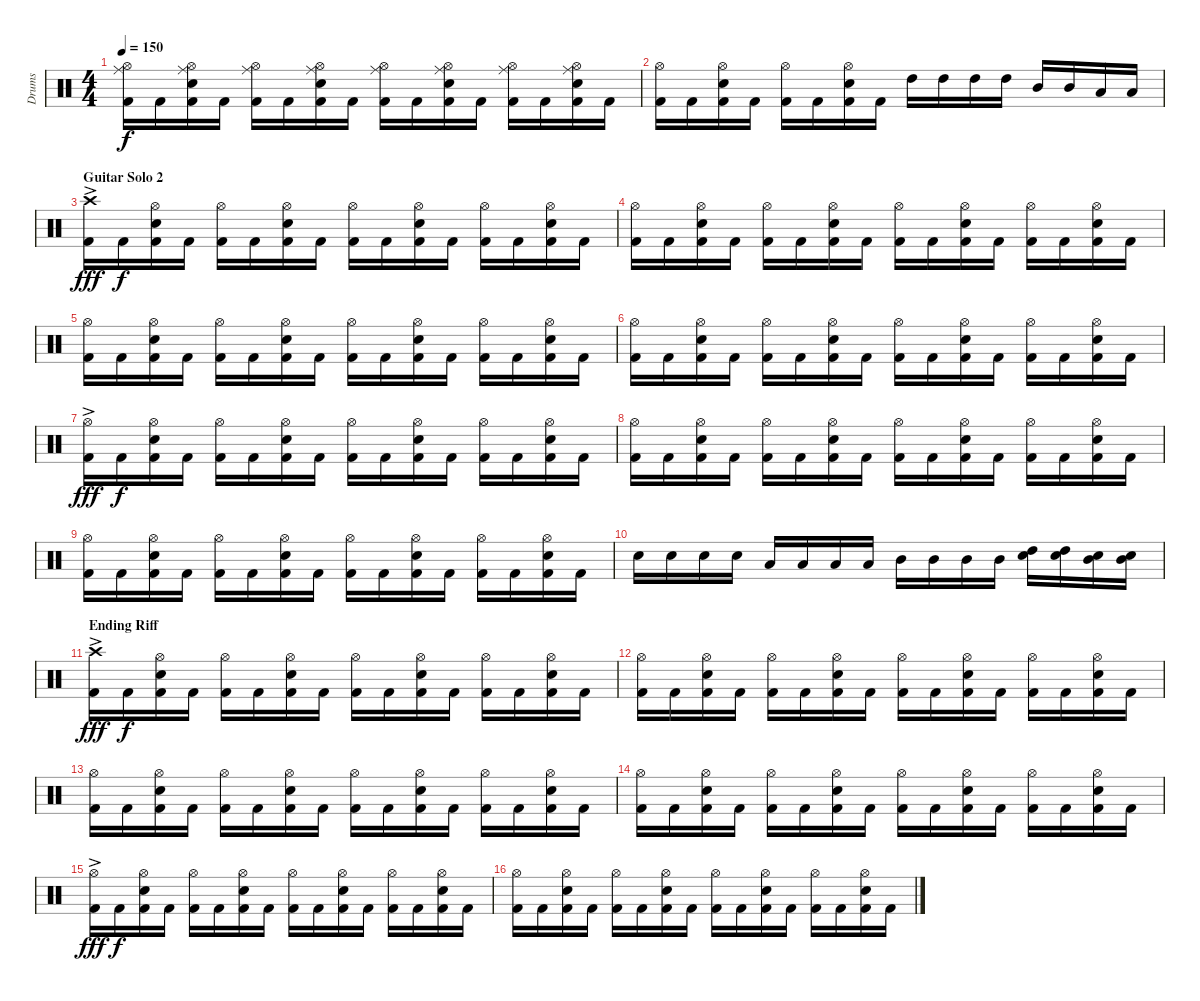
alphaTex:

\track ("Drums" "Drums") {instrument percussion}
\staff {score}
\articulation defaults
\ts (4 4)
\tempo 150
\clef neutral
\ks aminor
("Kick (hit) 2" "Ride (middle)" "Hi-Hat (open)").16{dy f} "Kick (hit) 2".16 ("Kick (hit) 2" "Ride (middle)" "Electric Snare (hit)" "Hi-Hat (open)").16 "Kick (hit) 2".16 ("Kick (hit) 2" "Ride (middle)" "Hi-Hat (open)").16 "Kick (hit) 2".16 ("Kick (hit) 2" "Ride (middle)" "Electric Snare (hit)" "Hi-Hat (open)").16 "Kick (hit) 2".16 ("Kick (hit) 2" "Ride (middle)" "Hi-Hat (open)").16 "Kick (hit) 2".16 ("Kick (hit) 2" "Ride (middle)" "Electric Snare (hit)" "Hi-Hat (open)").16 "Kick (hit) 2".16 ("Kick (hit) 2" "Ride (middle)" "Hi-Hat (open)").16 "Kick (hit) 2".16 ("Kick (hit) 2" "Ride (middle)" "Electric Snare (hit)" "Hi-Hat (open)").16 "Kick (hit) 2".16 |
("Kick (hit) 2" "Hi-Hat (open)").16 "Kick (hit) 2".16 ("Kick (hit) 2" "Electric Snare (hit)" "Hi-Hat (open)").16 "Kick (hit) 2".16 ("Kick (hit) 2" "Hi-Hat (open)").16 "Kick (hit) 2".16 ("Kick (hit) 2" "Electric Snare (hit)" "Hi-Hat (open)").16 "Kick (hit) 2".16 "High Tom (hit)".16 "High Tom (hit)".16 "High Tom (hit)".16 "High Tom (hit)".16 "Mid Tom (hit)".16 "Mid Tom (hit)".16 "Low Tom (hit)".16 "Low Tom (hit)".16 |
\section ("" "Guitar Solo 2 ")
("Kick (hit) 2"{ac} "Crash high (hit)").16{dy fff} "Kick (hit) 2".16{dy f} ("Kick (hit) 2" "Electric Snare (hit)" "Hi-Hat (open)").16 "Kick (hit) 2".16 ("Kick (hit) 2" "Hi-Hat (open)").16 "Kick (hit) 2".16 ("Kick (hit) 2" "Electric Snare (hit)" "Hi-Hat (open)").16 "Kick (hit) 2".16 ("Kick (hit) 2" "Hi-Hat (open)").16 "Kick (hit) 2".16 ("Kick (hit) 2" "Electric Snare (hit)" "Hi-Hat (open)").16 "Kick (hit) 2".16 ("Kick (hit) 2" "Hi-Hat (open)").16 "Kick (hit) 2".16 ("Kick (hit) 2" "Electric Snare (hit)" "Hi-Hat (open)").16 "Kick (hit) 2".16 |
("Kick (hit) 2" "Hi-Hat (open)").16 "Kick (hit) 2".16 ("Kick (hit) 2" "Electric Snare (hit)" "Hi-Hat (open)").16 "Kick (hit) 2".16 ("Kick (hit) 2" "Hi-Hat (open)").16 "Kick (hit) 2".16 ("Kick (hit) 2" "Electric Snare (hit)" "Hi-Hat (open)").16 "Kick (hit) 2".16 ("Kick (hit) 2" "Hi-Hat (open)").16 "Kick (hit) 2".16 ("Kick (hit) 2" "Electric Snare (hit)" "Hi-Hat (open)").16 "Kick (hit) 2".16 ("Kick (hit) 2" "Hi-Hat (open)").16 "Kick (hit) 2".16 ("Kick (hit) 2" "Electric Snare (hit)" "Hi-Hat (open)").16 "Kick (hit) 2".16 |
("Kick (hit) 2" "Hi-Hat (open)").16 "Kick (hit) 2".16 ("Kick (hit) 2" "Electric Snare (hit)" "Hi-Hat (open)").16 "Kick (hit) 2".16 ("Kick (hit) 2" "Hi-Hat (open)").16 "Kick (hit) 2".16 ("Kick (hit) 2" "Electric Snare (hit)" "Hi-Hat (open)").16 "Kick (hit) 2".16 ("Kick (hit) 2" "Hi-Hat (open)").16 "Kick (hit) 2".16 ("Kick (hit) 2" "Electric Snare (hit)" "Hi-Hat (open)").16 "Kick (hit) 2".16 ("Kick (hit) 2" "Hi-Hat (open)").16 "Kick (hit) 2".16 ("Kick (hit) 2" "Electric Snare (hit)" "Hi-Hat (open)").16 "Kick (hit) 2".16 |
("Kick (hit) 2" "Hi-Hat (open)").16 "Kick (hit) 2".16 ("Kick (hit) 2" "Electric Snare (hit)" "Hi-Hat (open)").16 "Kick (hit) 2".16 ("Kick (hit) 2" "Hi-Hat (open)").16 "Kick (hit) 2".16 ("Kick (hit) 2" "Electric Snare (hit)" "Hi-Hat (open)").16 "Kick (hit) 2".16 ("Kick (hit) 2" "Hi-Hat (open)").16 "Kick (hit) 2".16 ("Kick (hit) 2" "Electric Snare (hit)" "Hi-Hat (open)").16 "Kick (hit) 2".16 ("Kick (hit) 2" "Hi-Hat (open)").16 "Kick (hit) 2".16 ("Kick (hit) 2" "Electric Snare (hit)" "Hi-Hat (open)").16 "Kick (hit) 2".16 |
("Kick (hit) 2"{ac} "Hi-Hat (open)").16{dy fff} "Kick (hit) 2".16{dy f} ("Kick (hit) 2" "Electric Snare (hit)" "Hi-Hat (open)").16 "Kick (hit) 2".16 ("Kick (hit) 2" "Hi-Hat (open)").16 "Kick (hit) 2".16 ("Kick (hit) 2" "Electric Snare (hit)" "Hi-Hat (open)").16 "Kick (hit) 2".16 ("Kick (hit) 2" "Hi-Hat (open)").16 "Kick (hit) 2".16 ("Kick (hit) 2" "Electric Snare (hit)" "Hi-Hat (open)").16 "Kick (hit) 2".16 ("Kick (hit) 2" "Hi-Hat (open)").16 "Kick (hit) 2".16 ("Kick (hit) 2" "Electric Snare (hit)" "Hi-Hat (open)").16 "Kick (hit) 2".16 |
("Kick (hit) 2" "Hi-Hat (open)").16 "Kick (hit) 2".16 ("Kick (hit) 2" "Electric Snare (hit)" "Hi-Hat (open)").16 "Kick (hit) 2".16 ("Kick (hit) 2" "Hi-Hat (open)").16 "Kick (hit) 2".16 ("Kick (hit) 2" "Electric Snare (hit)" "Hi-Hat (open)").16 "Kick (hit) 2".16 ("Kick (hit) 2" "Hi-Hat (open)").16 "Kick (hit) 2".16 ("Kick (hit) 2" "Electric Snare (hit)" "Hi-Hat (open)").16 "Kick (hit) 2".16 ("Kick (hit) 2" "Hi-Hat (open)").16 "Kick (hit) 2".16 ("Kick (hit) 2" "Electric Snare (hit)" "Hi-Hat (open)").16 "Kick (hit) 2".16 |
("Kick (hit) 2" "Hi-Hat (open)").16 "Kick (hit) 2".16 ("Kick (hit) 2" "Electric Snare (hit)" "Hi-Hat (open)").16 "Kick (hit) 2".16 ("Kick (hit) 2" "Hi-Hat (open)").16 "Kick (hit) 2".16 ("Kick (hit) 2" "Electric Snare (hit)" "Hi-Hat (open)").16 "Kick (hit) 2".16 ("Kick (hit) 2" "Hi-Hat (open)").16 "Kick (hit) 2".16 ("Kick (hit) 2" "Electric Snare (hit)" "Hi-Hat (open)").16 "Kick (hit) 2".16 ("Kick (hit) 2" "Hi-Hat (open)").16 "Kick (hit) 2".16 ("Kick (hit) 2" "Electric Snare (hit)" "Hi-Hat (open)").16 "Kick (hit) 2".16 |
"Electric Snare (hit)".16 "Electric Snare (hit)".16 "Electric Snare (hit)".16 "Electric Snare (hit)".16 "Low Tom (hit)".16 "Low Tom (hit)".16 "Low Tom (hit)".16 "Low Tom (hit)".16 "Mid Tom (hit)".16 "Mid Tom (hit)".16 "Mid Tom (hit)".16 "Mid Tom (hit)".16 ("High Tom (hit)" "Electric Snare (hit)").16 ("High Tom (hit)" "Electric Snare (hit)").16 ("Mid Tom (hit)" "Electric Snare (hit)").16 ("Mid Tom (hit)" "Electric Snare (hit)").16 |
\section ("" "Ending Riff")
("Kick (hit) 2"{ac} "Crash high (hit)"{ac}).16{dy fff} "Kick (hit) 2".16{dy f} ("Kick (hit) 2" "Electric Snare (hit)" "Hi-Hat (open)").16 "Kick (hit) 2".16 ("Kick (hit) 2" "Hi-Hat (open)").16 "Kick (hit) 2".16 ("Kick (hit) 2" "Electric Snare (hit)" "Hi-Hat (open)").16 "Kick (hit) 2".16 ("Kick (hit) 2" "Hi-Hat (open)").16 "Kick (hit) 2".16 ("Kick (hit) 2" "Electric Snare (hit)" "Hi-Hat (open)").16 "Kick (hit) 2".16 ("Kick (hit) 2" "Hi-Hat (open)").16 "Kick (hit) 2".16 ("Kick (hit) 2" "Electric Snare (hit)" "Hi-Hat (open)").16 "Kick (hit) 2".16 |
("Kick (hit) 2" "Hi-Hat (open)").16 "Kick (hit) 2".16 ("Kick (hit) 2" "Electric Snare (hit)" "Hi-Hat (open)").16 "Kick (hit) 2".16 ("Kick (hit) 2" "Hi-Hat (open)").16 "Kick (hit) 2".16 ("Kick (hit) 2" "Electric Snare (hit)" "Hi-Hat (open)").16 "Kick (hit) 2".16 ("Kick (hit) 2" "Hi-Hat (open)").16 "Kick (hit) 2".16 ("Kick (hit) 2" "Electric Snare (hit)" "Hi-Hat (open)").16 "Kick (hit) 2".16 ("Kick (hit) 2" "Hi-Hat (open)").16 "Kick (hit) 2".16 ("Kick (hit) 2" "Electric Snare (hit)" "Hi-Hat (open)").16 "Kick (hit) 2".16 |
("Kick (hit) 2" "Hi-Hat (open)").16 "Kick (hit) 2".16 ("Kick (hit) 2" "Electric Snare (hit)" "Hi-Hat (open)").16 "Kick (hit) 2".16 ("Kick (hit) 2" "Hi-Hat (open)").16 "Kick (hit) 2".16 ("Kick (hit) 2" "Electric Snare (hit)" "Hi-Hat (open)").16 "Kick (hit) 2".16 ("Kick (hit) 2" "Hi-Hat (open)").16 "Kick (hit) 2".16 ("Kick (hit) 2" "Electric Snare (hit)" "Hi-Hat (open)").16 "Kick (hit) 2".16 ("Kick (hit) 2" "Hi-Hat (open)").16 "Kick (hit) 2".16 ("Kick (hit) 2" "Electric Snare (hit)" "Hi-Hat (open)").16 "Kick (hit) 2".16 |
("Kick (hit) 2" "Hi-Hat (open)").16 "Kick (hit) 2".16 ("Kick (hit) 2" "Electric Snare (hit)" "Hi-Hat (open)").16 "Kick (hit) 2".16 ("Kick (hit) 2" "Hi-Hat (open)").16 "Kick (hit) 2".16 ("Kick (hit) 2" "Electric Snare (hit)" "Hi-Hat (open)").16 "Kick (hit) 2".16 ("Kick (hit) 2" "Hi-Hat (open)").16 "Kick (hit) 2".16 ("Kick (hit) 2" "Electric Snare (hit)" "Hi-Hat (open)").16 "Kick (hit) 2".16 ("Kick (hit) 2" "Hi-Hat (open)").16 "Kick (hit) 2".16 ("Kick (hit) 2" "Electric Snare (hit)" "Hi-Hat (open)").16 "Kick (hit) 2".16 |
("Kick (hit) 2"{ac} "Hi-Hat (open)").16{dy fff} "Kick (hit) 2".16{dy f} ("Kick (hit) 2" "Electric Snare (hit)" "Hi-Hat (open)").16 "Kick (hit) 2".16 ("Kick (hit) 2" "Hi-Hat (open)").16 "Kick (hit) 2".16 ("Kick (hit) 2" "Electric Snare (hit)" "Hi-Hat (open)").16 "Kick (hit) 2".16 ("Kick (hit) 2" "Hi-Hat (open)").16 "Kick (hit) 2".16 ("Kick (hit) 2" "Electric Snare (hit)" "Hi-Hat (open)").16 "Kick (hit) 2".16 ("Kick (hit) 2" "Hi-Hat (open)").16 "Kick (hit) 2".16 ("Kick (hit) 2" "Electric Snare (hit)" "Hi-Hat (open)").16 "Kick (hit) 2".16 |
("Kick (hit) 2" "Hi-Hat (open)").16 "Kick (hit) 2".16 ("Kick (hit) 2" "Electric Snare (hit)" "Hi-Hat (open)").16 "Kick (hit) 2".16 ("Kick (hit) 2" "Hi-Hat (open)").16 "Kick (hit) 2".16 ("Kick (hit) 2" "Electric Snare (hit)" "Hi-Hat (open)").16 "Kick (hit) 2".16 ("Kick (hit) 2" "Hi-Hat (open)").16 "Kick (hit) 2".16 ("Kick (hit) 2" "Electric Snare (hit)" "Hi-Hat (open)").16 "Kick (hit) 2".16 ("Kick (hit) 2" "Hi-Hat (open)").16 "Kick (hit) 2".16 ("Kick (hit) 2" "Electric Snare (hit)" "Hi-Hat (open)").16 "Kick (hit) 2".16
